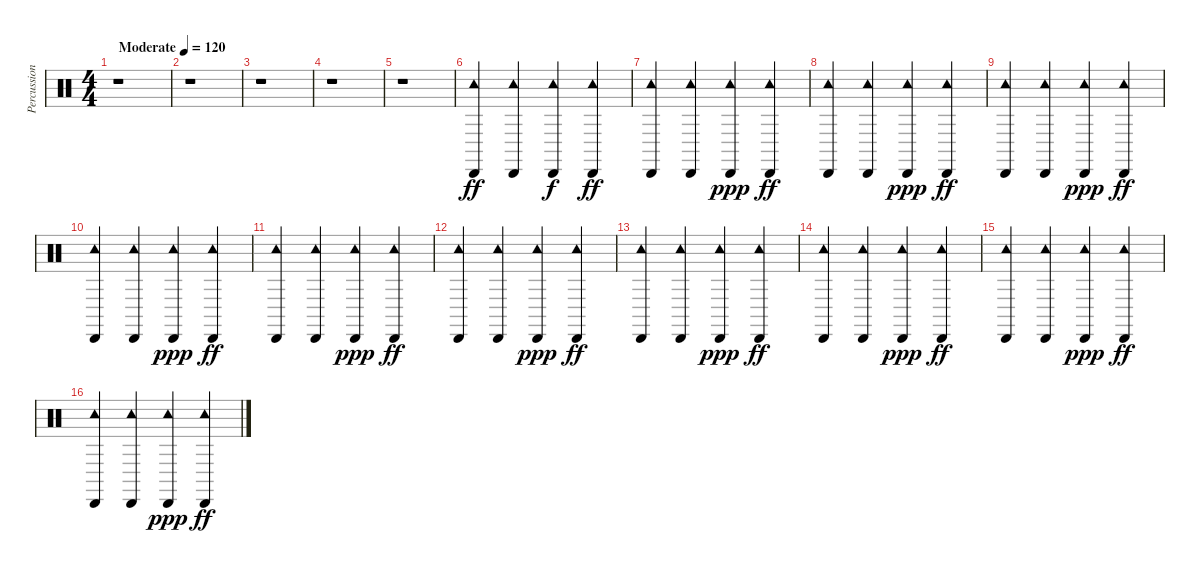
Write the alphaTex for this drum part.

\track ("Percussion" "Percussion") {instrument percussion}
\staff {score}
\articulation defaults
\ts (4 4)
\tempo (120 "Moderate")
\clef neutral
\ks c
r.1{dy ff} |
r.1 |
r.1 |
r.1 |
r.1 |
("Cabasa (hit)" "Tambourine (hit)").4 ("Cabasa (hit)" "Tambourine (hit)").4 ("Cabasa (hit)" "Tambourine (hit)").4{dy f} ("Cabasa (hit)" "Tambourine (hit)").4{dy ff} |
("Cabasa (hit)" "Tambourine (hit)").4 ("Cabasa (hit)" "Tambourine (hit)").4 ("Cabasa (hit)" "Tambourine (hit)").4{dy ppp} ("Cabasa (hit)" "Tambourine (hit)").4{dy ff} |
("Cabasa (hit)" "Tambourine (hit)").4 ("Cabasa (hit)" "Tambourine (hit)").4 ("Cabasa (hit)" "Tambourine (hit)").4{dy ppp} ("Cabasa (hit)" "Tambourine (hit)").4{dy ff} |
("Cabasa (hit)" "Tambourine (hit)").4 ("Cabasa (hit)" "Tambourine (hit)").4 ("Cabasa (hit)" "Tambourine (hit)").4{dy ppp} ("Cabasa (hit)" "Tambourine (hit)").4{dy ff} |
("Cabasa (hit)" "Tambourine (hit)").4 ("Cabasa (hit)" "Tambourine (hit)").4 ("Cabasa (hit)" "Tambourine (hit)").4{dy ppp} ("Cabasa (hit)" "Tambourine (hit)").4{dy ff} |
("Cabasa (hit)" "Tambourine (hit)").4 ("Cabasa (hit)" "Tambourine (hit)").4 ("Cabasa (hit)" "Tambourine (hit)").4{dy ppp} ("Cabasa (hit)" "Tambourine (hit)").4{dy ff} |
("Cabasa (hit)" "Tambourine (hit)").4 ("Cabasa (hit)" "Tambourine (hit)").4 ("Cabasa (hit)" "Tambourine (hit)").4{dy ppp} ("Cabasa (hit)" "Tambourine (hit)").4{dy ff} |
("Cabasa (hit)" "Tambourine (hit)").4 ("Cabasa (hit)" "Tambourine (hit)").4 ("Cabasa (hit)" "Tambourine (hit)").4{dy ppp} ("Cabasa (hit)" "Tambourine (hit)").4{dy ff} |
("Cabasa (hit)" "Tambourine (hit)").4 ("Cabasa (hit)" "Tambourine (hit)").4 ("Cabasa (hit)" "Tambourine (hit)").4{dy ppp} ("Cabasa (hit)" "Tambourine (hit)").4{dy ff} |
("Cabasa (hit)" "Tambourine (hit)").4 ("Cabasa (hit)" "Tambourine (hit)").4 ("Cabasa (hit)" "Tambourine (hit)").4{dy ppp} ("Cabasa (hit)" "Tambourine (hit)").4{dy ff} |
("Cabasa (hit)" "Tambourine (hit)").4 ("Cabasa (hit)" "Tambourine (hit)").4 ("Cabasa (hit)" "Tambourine (hit)").4{dy ppp} ("Cabasa (hit)" "Tambourine (hit)").4{dy ff}
